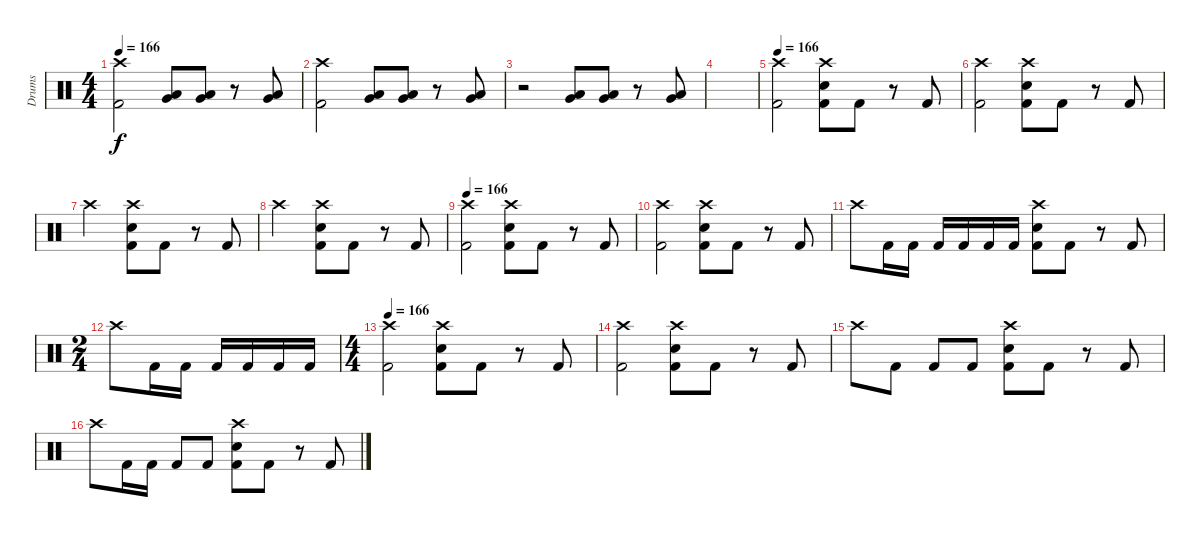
\track ("Drums" "Drums") {instrument percussion}
\staff {score}
\articulation defaults
\ts (4 4)
\tempo 166
\clef neutral
\ks c
("Crash high (hit)" "Kick (hit) 2").2{dy f} ("Low Tom (hit)" "Very Low Tom (hit)").8 ("Low Tom (hit)" "Very Low Tom (hit)").8 r.8 ("Low Tom (hit)" "Very Low Tom (hit)").8 |
("Crash high (hit)" "Kick (hit) 2").2 ("Low Tom (hit)" "Very Low Tom (hit)").8 ("Low Tom (hit)" "Very Low Tom (hit)").8 r.8 ("Low Tom (hit)" "Very Low Tom (hit)").8 |
r.2 ("Low Tom (hit)" "Very Low Tom (hit)").8 ("Low Tom (hit)" "Very Low Tom (hit)").8 r.8 ("Low Tom (hit)" "Very Low Tom (hit)").8 |
|
\tempo 166
("Crash high (hit)" "Kick (hit) 2").2 ("Crash high (hit)" "Snare (hit) 2" "Kick (hit) 2").8 "Kick (hit) 2".8 r.8 "Kick (hit) 2".8 |
("Crash high (hit)" "Kick (hit) 2").2 ("Crash high (hit)" "Snare (hit) 2" "Kick (hit) 2").8 "Kick (hit) 2".8 r.8 "Kick (hit) 2".8 |
"Crash high (hit)".2 ("Crash high (hit)" "Snare (hit) 2" "Kick (hit) 2").8 "Kick (hit) 2".8 r.8 "Kick (hit) 2".8 |
"Crash high (hit)".2 ("Crash high (hit)" "Snare (hit) 2" "Kick (hit) 2").8 "Kick (hit) 2".8 r.8 "Kick (hit) 2".8 |
\tempo 166
("Crash high (hit)" "Kick (hit) 2").2 ("Crash high (hit)" "Snare (hit) 2" "Kick (hit) 2").8 "Kick (hit) 2".8 r.8 "Kick (hit) 2".8 |
("Crash high (hit)" "Kick (hit) 2").2 ("Crash high (hit)" "Snare (hit) 2" "Kick (hit) 2").8 "Kick (hit) 2".8 r.8 "Kick (hit) 2".8 |
"Crash high (hit)".8 "Kick (hit) 2".16 "Kick (hit) 2".16 "Kick (hit) 2".16 "Kick (hit) 2".16 "Kick (hit) 2".16 "Kick (hit) 2".16 ("Crash high (hit)" "Snare (hit) 2" "Kick (hit) 2").8 "Kick (hit) 2".8 r.8 "Kick (hit) 2".8 |
\ts (2 4)
"Crash high (hit)".8 "Kick (hit) 2".16 "Kick (hit) 2".16 "Kick (hit) 2".16 "Kick (hit) 2".16 "Kick (hit) 2".16 "Kick (hit) 2".16 |
\ts (4 4)
\tempo 166
("Crash high (hit)" "Kick (hit) 2").2 ("Crash high (hit)" "Electric Snare (hit)" "Kick (hit) 2").8 "Kick (hit) 2".8 r.8 "Kick (hit) 2".8 |
("Crash high (hit)" "Kick (hit) 2").2 ("Crash high (hit)" "Electric Snare (hit)" "Kick (hit) 2").8 "Kick (hit) 2".8 r.8 "Kick (hit) 2".8 |
"Crash high (hit)".8 "Kick (hit) 2".8 "Kick (hit) 2".8 "Kick (hit) 2".8 ("Crash high (hit)" "Electric Snare (hit)" "Kick (hit) 2").8 "Kick (hit) 2".8 r.8 "Kick (hit) 2".8 |
"Crash high (hit)".8 "Kick (hit) 2".16 "Kick (hit) 2".16 "Kick (hit) 2".8 "Kick (hit) 2".8 ("Crash high (hit)" "Electric Snare (hit)" "Kick (hit) 2").8 "Kick (hit) 2".8 r.8 "Kick (hit) 2".8
